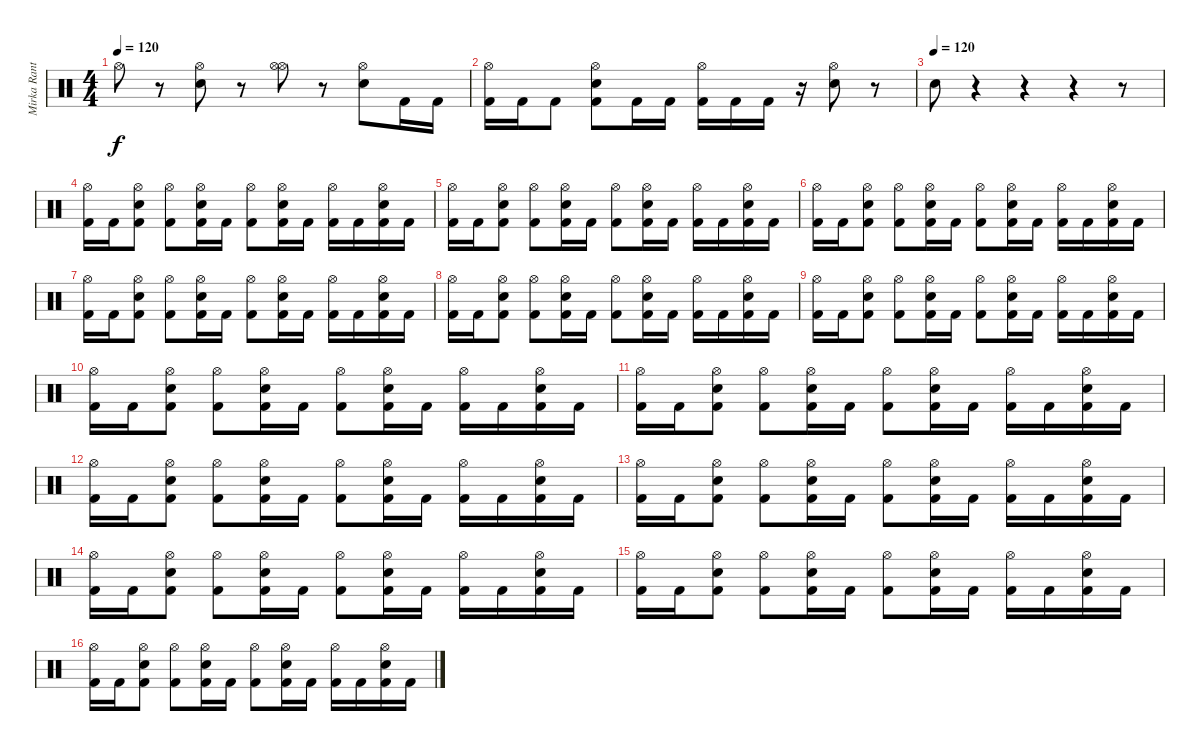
\track ("Mirka Rantanen" "Mirka Rant") {instrument percussion}
\staff {score}
\articulation defaults
\ts (4 4)
\tempo 120
\clef neutral
\ks c "Hi-Hat (open)".8{dy f}
r.8 ("Snare (hit) 2" "Hi-Hat (open)").8 r.8 ("Hi-Hat (open)" "Hi-Hat (open)").8 r.8 ("Snare (hit) 2" "Hi-Hat (open)").8 "Kick (hit) 2".16 "Kick (hit) 2".16 |
("Hi-Hat (open)" "Kick (hit) 2").16 "Kick (hit) 2".16 "Kick (hit) 2".8 ("Hi-Hat (open)" "Snare (hit) 2" "Kick (hit) 2").8 "Kick (hit) 2".16 "Kick (hit) 2".16 ("Hi-Hat (open)" "Kick (hit) 2").16 "Kick (hit) 2".16 "Kick (hit) 2".16 r.16 ("Hi-Hat (open)" "Snare (hit) 2").8 r.8 |
\tempo (120)
"Snare (hit) 2".8 r.4 r.4 r.4 r.8 |
("Hi-Hat (open)" "Kick (hit) 2").16 "Kick (hit) 2".16 ("Snare (hit) 2" "Hi-Hat (open)" "Kick (hit) 2").8 ("Hi-Hat (open)" "Kick (hit) 2").8 ("Snare (hit) 2" "Hi-Hat (open)" "Kick (hit) 2").16 "Kick (hit) 2".16 ("Hi-Hat (open)" "Kick (hit) 2").8 ("Snare (hit) 2" "Hi-Hat (open)" "Kick (hit) 2").16 "Kick (hit) 2".16 ("Hi-Hat (open)" "Kick (hit) 2").16 "Kick (hit) 2".16 ("Snare (hit) 2" "Hi-Hat (open)" "Kick (hit) 2").16 "Kick (hit) 2".16 |
("Hi-Hat (open)" "Kick (hit) 2").16 "Kick (hit) 2".16 ("Snare (hit) 2" "Hi-Hat (open)" "Kick (hit) 2").8 ("Hi-Hat (open)" "Kick (hit) 2").8 ("Snare (hit) 2" "Hi-Hat (open)" "Kick (hit) 2").16 "Kick (hit) 2".16 ("Hi-Hat (open)" "Kick (hit) 2").8 ("Snare (hit) 2" "Hi-Hat (open)" "Kick (hit) 2").16 "Kick (hit) 2".16 ("Hi-Hat (open)" "Kick (hit) 2").16 "Kick (hit) 2".16 ("Snare (hit) 2" "Hi-Hat (open)" "Kick (hit) 2").16 "Kick (hit) 2".16 |
("Hi-Hat (open)" "Kick (hit) 2").16 "Kick (hit) 2".16 ("Snare (hit) 2" "Hi-Hat (open)" "Kick (hit) 2").8 ("Hi-Hat (open)" "Kick (hit) 2").8 ("Snare (hit) 2" "Hi-Hat (open)" "Kick (hit) 2").16 "Kick (hit) 2".16 ("Hi-Hat (open)" "Kick (hit) 2").8 ("Snare (hit) 2" "Hi-Hat (open)" "Kick (hit) 2").16 "Kick (hit) 2".16 ("Hi-Hat (open)" "Kick (hit) 2").16 "Kick (hit) 2".16 ("Snare (hit) 2" "Hi-Hat (open)" "Kick (hit) 2").16 "Kick (hit) 2".16 |
("Hi-Hat (open)" "Kick (hit) 2").16 "Kick (hit) 2".16 ("Snare (hit) 2" "Hi-Hat (open)" "Kick (hit) 2").8 ("Hi-Hat (open)" "Kick (hit) 2").8 ("Snare (hit) 2" "Hi-Hat (open)" "Kick (hit) 2").16 "Kick (hit) 2".16 ("Hi-Hat (open)" "Kick (hit) 2").8 ("Snare (hit) 2" "Hi-Hat (open)" "Kick (hit) 2").16 "Kick (hit) 2".16 ("Hi-Hat (open)" "Kick (hit) 2").16 "Kick (hit) 2".16 ("Snare (hit) 2" "Hi-Hat (open)" "Kick (hit) 2").16 "Kick (hit) 2".16 |
("Hi-Hat (open)" "Kick (hit) 2").16 "Kick (hit) 2".16 ("Snare (hit) 2" "Hi-Hat (open)" "Kick (hit) 2").8 ("Hi-Hat (open)" "Kick (hit) 2").8 ("Snare (hit) 2" "Hi-Hat (open)" "Kick (hit) 2").16 "Kick (hit) 2".16 ("Hi-Hat (open)" "Kick (hit) 2").8 ("Snare (hit) 2" "Hi-Hat (open)" "Kick (hit) 2").16 "Kick (hit) 2".16 ("Hi-Hat (open)" "Kick (hit) 2").16 "Kick (hit) 2".16 ("Snare (hit) 2" "Hi-Hat (open)" "Kick (hit) 2").16 "Kick (hit) 2".16 |
("Hi-Hat (open)" "Kick (hit) 2").16 "Kick (hit) 2".16 ("Snare (hit) 2" "Hi-Hat (open)" "Kick (hit) 2").8 ("Hi-Hat (open)" "Kick (hit) 2").8 ("Snare (hit) 2" "Hi-Hat (open)" "Kick (hit) 2").16 "Kick (hit) 2".16 ("Hi-Hat (open)" "Kick (hit) 2").8 ("Snare (hit) 2" "Hi-Hat (open)" "Kick (hit) 2").16 "Kick (hit) 2".16 ("Hi-Hat (open)" "Kick (hit) 2").16 "Kick (hit) 2".16 ("Snare (hit) 2" "Hi-Hat (open)" "Kick (hit) 2").16 "Kick (hit) 2".16 |
("Hi-Hat (open)" "Kick (hit) 2").16 "Kick (hit) 2".16 ("Snare (hit) 2" "Hi-Hat (open)" "Kick (hit) 2").8 ("Hi-Hat (open)" "Kick (hit) 2").8 ("Snare (hit) 2" "Hi-Hat (open)" "Kick (hit) 2").16 "Kick (hit) 2".16 ("Hi-Hat (open)" "Kick (hit) 2").8 ("Snare (hit) 2" "Hi-Hat (open)" "Kick (hit) 2").16 "Kick (hit) 2".16 ("Hi-Hat (open)" "Kick (hit) 2").16 "Kick (hit) 2".16 ("Snare (hit) 2" "Hi-Hat (open)" "Kick (hit) 2").16 "Kick (hit) 2".16 |
("Hi-Hat (open)" "Kick (hit) 2").16 "Kick (hit) 2".16 ("Snare (hit) 2" "Hi-Hat (open)" "Kick (hit) 2").8 ("Hi-Hat (open)" "Kick (hit) 2").8 ("Snare (hit) 2" "Hi-Hat (open)" "Kick (hit) 2").16 "Kick (hit) 2".16 ("Hi-Hat (open)" "Kick (hit) 2").8 ("Snare (hit) 2" "Hi-Hat (open)" "Kick (hit) 2").16 "Kick (hit) 2".16 ("Hi-Hat (open)" "Kick (hit) 2").16 "Kick (hit) 2".16 ("Snare (hit) 2" "Hi-Hat (open)" "Kick (hit) 2").16 "Kick (hit) 2".16 |
("Hi-Hat (open)" "Kick (hit) 2").16 "Kick (hit) 2".16 ("Snare (hit) 2" "Hi-Hat (open)" "Kick (hit) 2").8 ("Hi-Hat (open)" "Kick (hit) 2").8 ("Snare (hit) 2" "Hi-Hat (open)" "Kick (hit) 2").16 "Kick (hit) 2".16 ("Hi-Hat (open)" "Kick (hit) 2").8 ("Snare (hit) 2" "Hi-Hat (open)" "Kick (hit) 2").16 "Kick (hit) 2".16 ("Hi-Hat (open)" "Kick (hit) 2").16 "Kick (hit) 2".16 ("Snare (hit) 2" "Hi-Hat (open)" "Kick (hit) 2").16 "Kick (hit) 2".16 |
("Hi-Hat (open)" "Kick (hit) 2").16 "Kick (hit) 2".16 ("Snare (hit) 2" "Hi-Hat (open)" "Kick (hit) 2").8 ("Hi-Hat (open)" "Kick (hit) 2").8 ("Snare (hit) 2" "Hi-Hat (open)" "Kick (hit) 2").16 "Kick (hit) 2".16 ("Hi-Hat (open)" "Kick (hit) 2").8 ("Snare (hit) 2" "Hi-Hat (open)" "Kick (hit) 2").16 "Kick (hit) 2".16 ("Hi-Hat (open)" "Kick (hit) 2").16 "Kick (hit) 2".16 ("Snare (hit) 2" "Hi-Hat (open)" "Kick (hit) 2").16 "Kick (hit) 2".16 |
("Hi-Hat (open)" "Kick (hit) 2").16 "Kick (hit) 2".16 ("Snare (hit) 2" "Hi-Hat (open)" "Kick (hit) 2").8 ("Hi-Hat (open)" "Kick (hit) 2").8 ("Snare (hit) 2" "Hi-Hat (open)" "Kick (hit) 2").16 "Kick (hit) 2".16 ("Hi-Hat (open)" "Kick (hit) 2").8 ("Snare (hit) 2" "Hi-Hat (open)" "Kick (hit) 2").16 "Kick (hit) 2".16 ("Hi-Hat (open)" "Kick (hit) 2").16 "Kick (hit) 2".16 ("Snare (hit) 2" "Hi-Hat (open)" "Kick (hit) 2").16 "Kick (hit) 2".16 |
("Hi-Hat (open)" "Kick (hit) 2").16 "Kick (hit) 2".16 ("Snare (hit) 2" "Hi-Hat (open)" "Kick (hit) 2").8 ("Hi-Hat (open)" "Kick (hit) 2").8 ("Snare (hit) 2" "Hi-Hat (open)" "Kick (hit) 2").16 "Kick (hit) 2".16 ("Hi-Hat (open)" "Kick (hit) 2").8 ("Snare (hit) 2" "Hi-Hat (open)" "Kick (hit) 2").16 "Kick (hit) 2".16 ("Hi-Hat (open)" "Kick (hit) 2").16 "Kick (hit) 2".16 ("Snare (hit) 2" "Hi-Hat (open)" "Kick (hit) 2").16 "Kick (hit) 2".16 |
("Hi-Hat (open)" "Kick (hit) 2").16 "Kick (hit) 2".16 ("Snare (hit) 2" "Hi-Hat (open)" "Kick (hit) 2").8 ("Hi-Hat (open)" "Kick (hit) 2").8 ("Snare (hit) 2" "Hi-Hat (open)" "Kick (hit) 2").16 "Kick (hit) 2".16 ("Hi-Hat (open)" "Kick (hit) 2").8 ("Snare (hit) 2" "Hi-Hat (open)" "Kick (hit) 2").16 "Kick (hit) 2".16 ("Hi-Hat (open)" "Kick (hit) 2").16 "Kick (hit) 2".16 ("Snare (hit) 2" "Hi-Hat (open)" "Kick (hit) 2").16 "Kick (hit) 2".16
